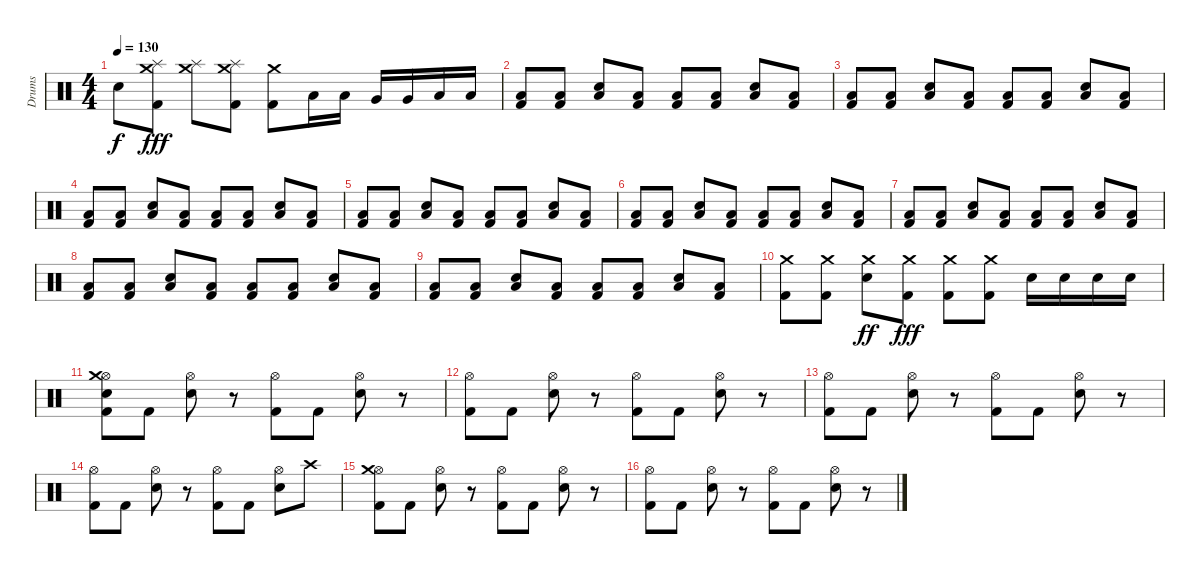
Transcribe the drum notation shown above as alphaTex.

\track ("Drums" "Drums") {instrument percussion}
\staff {score}
\articulation defaults
\ts (4 4)
\tempo 130
\clef neutral
\ks c "Snare (hit)"{t}.8{dy f}
("Kick (hit) 2" "Crash medium (hit)" "Splash (hit)").8{dy fff} ("Crash medium (hit)" "Splash (hit)").8 ("Kick (hit) 2" "Crash medium (hit)" "Splash (hit)").8 ("Kick (hit) 2" "Crash medium (hit)").8 "Low Tom (hit)".16 "Low Tom (hit)".16 "Very Low Tom (hit)".16 "Very Low Tom (hit)".16 "Low Floor Tom (hit)".16 "Low Floor Tom (hit)".16 |
("Kick (hit) 2" "Low Tom (hit)").8 ("Kick (hit) 2" "Low Tom (hit)").8 ("Snare (hit) 2" "Low Tom (hit)").8 ("Kick (hit) 2" "Low Tom (hit)").8 ("Kick (hit) 2" "Low Tom (hit)").8 ("Kick (hit) 2" "Low Tom (hit)").8 ("Snare (hit) 2" "Low Tom (hit)").8 ("Kick (hit) 2" "Low Tom (hit)").8 |
("Kick (hit) 2" "Low Tom (hit)").8 ("Kick (hit) 2" "Low Tom (hit)").8 ("Snare (hit) 2" "Low Tom (hit)").8 ("Kick (hit) 2" "Low Tom (hit)").8 ("Kick (hit) 2" "Low Tom (hit)").8 ("Kick (hit) 2" "Low Tom (hit)").8 ("Snare (hit) 2" "Low Tom (hit)").8 ("Kick (hit) 2" "Low Tom (hit)").8 |
("Kick (hit) 2" "Low Tom (hit)").8 ("Kick (hit) 2" "Low Tom (hit)").8 ("Snare (hit) 2" "Low Tom (hit)").8 ("Kick (hit) 2" "Low Tom (hit)").8 ("Kick (hit) 2" "Low Tom (hit)").8 ("Kick (hit) 2" "Low Tom (hit)").8 ("Snare (hit) 2" "Low Tom (hit)").8 ("Kick (hit) 2" "Low Tom (hit)").8 |
("Kick (hit) 2" "Low Tom (hit)").8 ("Kick (hit) 2" "Low Tom (hit)").8 ("Snare (hit) 2" "Low Tom (hit)").8 ("Kick (hit) 2" "Low Tom (hit)").8 ("Kick (hit) 2" "Low Tom (hit)").8 ("Kick (hit) 2" "Low Tom (hit)").8 ("Snare (hit) 2" "Low Tom (hit)").8 ("Kick (hit) 2" "Low Tom (hit)").8 |
("Kick (hit) 2" "Low Tom (hit)").8 ("Kick (hit) 2" "Low Tom (hit)").8 ("Snare (hit) 2" "Low Tom (hit)").8 ("Kick (hit) 2" "Low Tom (hit)").8 ("Kick (hit) 2" "Low Tom (hit)").8 ("Kick (hit) 2" "Low Tom (hit)").8 ("Snare (hit) 2" "Low Tom (hit)").8 ("Kick (hit) 2" "Low Tom (hit)").8 |
("Kick (hit) 2" "Low Tom (hit)").8 ("Kick (hit) 2" "Low Tom (hit)").8 ("Snare (hit) 2" "Low Tom (hit)").8 ("Kick (hit) 2" "Low Tom (hit)").8 ("Kick (hit) 2" "Low Tom (hit)").8 ("Kick (hit) 2" "Low Tom (hit)").8 ("Snare (hit) 2" "Low Tom (hit)").8 ("Kick (hit) 2" "Low Tom (hit)").8 |
("Kick (hit) 2" "Low Tom (hit)").8 ("Kick (hit) 2" "Low Tom (hit)").8 ("Snare (hit) 2" "Low Tom (hit)").8 ("Kick (hit) 2" "Low Tom (hit)").8 ("Kick (hit) 2" "Low Tom (hit)").8 ("Kick (hit) 2" "Low Tom (hit)").8 ("Snare (hit) 2" "Low Tom (hit)").8 ("Kick (hit) 2" "Low Tom (hit)").8 |
("Kick (hit) 2" "Low Tom (hit)").8 ("Kick (hit) 2" "Low Tom (hit)").8 ("Snare (hit) 2" "Low Tom (hit)").8 ("Kick (hit) 2" "Low Tom (hit)").8 ("Kick (hit) 2" "Low Tom (hit)").8 ("Kick (hit) 2" "Low Tom (hit)").8 ("Snare (hit) 2" "Low Tom (hit)").8 ("Kick (hit) 2" "Low Tom (hit)").8 |
("Kick (hit) 2" "Crash medium (hit)").8 ("Kick (hit) 2" "Crash medium (hit)").8 ("Snare (hit) 2" "Crash medium (hit)").8{dy ff} ("Kick (hit) 2" "Crash medium (hit)").8{dy fff} ("Kick (hit) 2" "Crash medium (hit)").8 ("Kick (hit) 2" "Crash medium (hit)").8 "Snare (hit) 2".16 "Snare (hit) 2".16 "Snare (hit) 2".16 "Snare (hit) 2".16 |
("Kick (hit) 2" "Hi-Hat (open)" "Crash medium (hit)" "Snare (hit) 2").8 "Kick (hit) 2".8 ("Snare (hit) 2" "Hi-Hat (open)").8 r.8 ("Kick (hit) 2" "Hi-Hat (open)").8 "Kick (hit) 2".8 ("Snare (hit) 2" "Hi-Hat (open)").8 r.8 |
("Kick (hit) 2" "Hi-Hat (open)").8 "Kick (hit) 2".8 ("Snare (hit) 2" "Hi-Hat (open)").8 r.8 ("Kick (hit) 2" "Hi-Hat (open)").8 "Kick (hit) 2".8 ("Snare (hit) 2" "Hi-Hat (open)").8 r.8 |
("Kick (hit) 2" "Hi-Hat (open)").8 "Kick (hit) 2".8 ("Snare (hit) 2" "Hi-Hat (open)").8 r.8 ("Kick (hit) 2" "Hi-Hat (open)").8 "Kick (hit) 2".8 ("Snare (hit) 2" "Hi-Hat (open)").8 r.8 |
("Kick (hit) 2" "Hi-Hat (open)").8 "Kick (hit) 2".8 ("Snare (hit) 2" "Hi-Hat (open)").8 r.8 ("Kick (hit) 2" "Hi-Hat (open)").8 "Kick (hit) 2".8 ("Snare (hit) 2" "Hi-Hat (open)").8 "Crash high (hit)".8 |
("Kick (hit) 2" "Hi-Hat (open)" "Crash medium (hit)").8 "Kick (hit) 2".8 ("Snare (hit) 2" "Hi-Hat (open)").8 r.8 ("Kick (hit) 2" "Hi-Hat (open)").8 "Kick (hit) 2".8 ("Snare (hit) 2" "Hi-Hat (open)").8 r.8 |
("Kick (hit) 2" "Hi-Hat (open)").8 "Kick (hit) 2".8 ("Snare (hit) 2" "Hi-Hat (open)").8 r.8 ("Kick (hit) 2" "Hi-Hat (open)").8 "Kick (hit) 2".8 ("Snare (hit) 2" "Hi-Hat (open)").8 r.8
